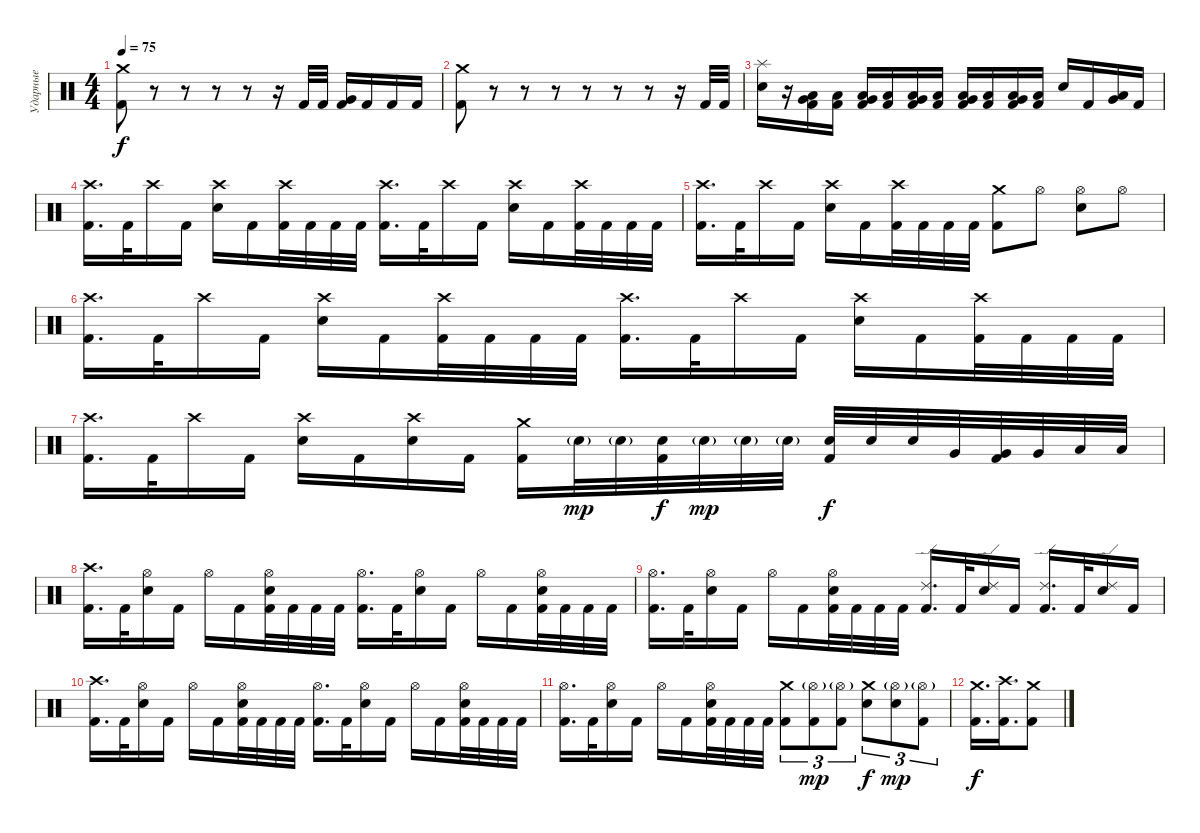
\track ("Ударные" "Ударные") {instrument percussion}
\staff {score}
\articulation defaults
\ts (4 4)
\tempo 75
\clef neutral
\ks c
("Crash medium (hit)" "Kick (hit) 2").8{dy f} r.8 r.8 r.8 r.8 r.16 "Kick (hit) 2".32 "Kick (hit) 2".32 ("Very Low Tom (hit)" "Kick (hit) 2").16 "Kick (hit) 2".16 "Kick (hit) 2".16 "Kick (hit) 2".16 |
("Crash medium (hit)" "Kick (hit) 2").8 r.8 r.8 r.8 r.8 r.8 r.8 r.16 "Kick (hit) 2".32 "Kick (hit) 2".32 |
("Splash (hit)" "Electric Snare (hit)").16 r.16 ("Very Low Tom (hit)" "Low Floor Tom (hit)" "Kick (hit) 2").16 ("Low Floor Tom (hit)" "Kick (hit) 2").16 ("Very Low Tom (hit)" "Low Floor Tom (hit)" "Kick (hit) 2").16 ("Low Floor Tom (hit)" "Kick (hit) 2").16 ("Very Low Tom (hit)" "Low Floor Tom (hit)" "Kick (hit) 2").16 ("Low Floor Tom (hit)" "Kick (hit) 2").16 ("Very Low Tom (hit)" "Low Floor Tom (hit)" "Kick (hit) 2").16 ("Low Floor Tom (hit)" "Kick (hit) 2").16 ("Very Low Tom (hit)" "Low Floor Tom (hit)" "Kick (hit) 2").16 ("Low Floor Tom (hit)" "Kick (hit) 2").16 "Electric Snare (hit)".16 "Kick (hit) 2".16 ("Very Low Tom (hit)" "Low Floor Tom (hit)").16 "Kick (hit) 2".16 |
("Crash high (hit)" "Kick (hit) 2").16{d} "Kick (hit) 2".32 "Crash high (hit)".16 "Kick (hit) 2".16 ("Crash high (hit)" "Electric Snare (hit)").16 "Kick (hit) 2".16 ("Crash high (hit)" "Kick (hit) 2").32 "Kick (hit) 2".32 "Kick (hit) 2".32 "Kick (hit) 2".32 ("Crash high (hit)" "Kick (hit) 2").16{d} "Kick (hit) 2".32 "Crash high (hit)".16 "Kick (hit) 2".16 ("Crash high (hit)" "Electric Snare (hit)").16 "Kick (hit) 2".16 ("Crash high (hit)" "Kick (hit) 2").32 "Kick (hit) 2".32 "Kick (hit) 2".32 "Kick (hit) 2".32 |
("Crash high (hit)" "Kick (hit) 2").16{d} "Kick (hit) 2".32 "Crash high (hit)".16 "Kick (hit) 2".16 ("Crash high (hit)" "Electric Snare (hit)").16 "Kick (hit) 2".16 ("Crash high (hit)" "Kick (hit) 2").32 "Kick (hit) 2".32 "Kick (hit) 2".32 "Kick (hit) 2".32 ("Crash medium (hit)" "Kick (hit) 2").8 "Hi-Hat (open)".8 ("Hi-Hat (open)" "Electric Snare (hit)").8 "Hi-Hat (open)".8 |
("Crash high (hit)" "Kick (hit) 2").16{d} "Kick (hit) 2".32 "Crash high (hit)".16 "Kick (hit) 2".16 ("Crash high (hit)" "Electric Snare (hit)").16 "Kick (hit) 2".16 ("Crash high (hit)" "Kick (hit) 2").32 "Kick (hit) 2".32 "Kick (hit) 2".32 "Kick (hit) 2".32 ("Crash high (hit)" "Kick (hit) 2").16{d} "Kick (hit) 2".32 "Crash high (hit)".16 "Kick (hit) 2".16 ("Crash high (hit)" "Electric Snare (hit)").16 "Kick (hit) 2".16 ("Crash high (hit)" "Kick (hit) 2").32 "Kick (hit) 2".32 "Kick (hit) 2".32 "Kick (hit) 2".32 |
("Crash high (hit)" "Kick (hit) 2").16{d} "Kick (hit) 2".32 "Crash high (hit)".16 "Kick (hit) 2".16 ("Crash high (hit)" "Electric Snare (hit)").16 "Kick (hit) 2".16 ("Crash high (hit)" "Electric Snare (hit)").16 "Kick (hit) 2".16 ("Crash medium (hit)" "Kick (hit) 2").16 "Electric Snare (hit)"{g}.32{dy mp} "Electric Snare (hit)"{g}.32 ("Electric Snare (hit)" "Kick (hit) 2").32{dy f} "Electric Snare (hit)"{g}.32{dy mp} "Electric Snare (hit)"{g}.32 "Electric Snare (hit)"{g}.32 ("Electric Snare (hit)" "Kick (hit) 2").32{dy f} "Electric Snare (hit)".32 "Electric Snare (hit)".32 "Very Low Tom (hit)".32 ("Very Low Tom (hit)" "Kick (hit) 2").32 "Very Low Tom (hit)".32 "Low Floor Tom (hit)".32 "Low Floor Tom (hit)".32 |
("Crash high (hit)" "Kick (hit) 2").16{d} "Kick (hit) 2".32 ("Hi-Hat (open)" "Electric Snare (hit)").16 "Kick (hit) 2".16 "Hi-Hat (open)".16 "Kick (hit) 2".16 ("Hi-Hat (open)" "Electric Snare (hit)" "Kick (hit) 2").32 "Kick (hit) 2".32 "Kick (hit) 2".32 "Kick (hit) 2".32 ("Hi-Hat (open)" "Kick (hit) 2").16{d} "Kick (hit) 2".32 ("Hi-Hat (open)" "Electric Snare (hit)").16 "Kick (hit) 2".16 "Hi-Hat (open)".16 "Kick (hit) 2".16 ("Hi-Hat (open)" "Electric Snare (hit)" "Kick (hit) 2").32 "Kick (hit) 2".32 "Kick (hit) 2".32 "Kick (hit) 2".32 |
("Hi-Hat (open)" "Kick (hit) 2").16{d} "Kick (hit) 2".32 ("Hi-Hat (open)" "Electric Snare (hit)").16 "Kick (hit) 2".16 "Hi-Hat (open)".16 "Kick (hit) 2".16 ("Hi-Hat (open)" "Electric Snare (hit)" "Kick (hit) 2").32 "Kick (hit) 2".32 "Kick (hit) 2".32 "Kick (hit) 2".32 ("Ride (edge) 2" "Kick (hit) 2").16{d} "Kick (hit) 2".32 ("Ride (edge) 2" "Electric Snare (hit)").16 "Kick (hit) 2".16 ("Ride (edge) 2" "Kick (hit) 2").16{d} "Kick (hit) 2".32 ("Ride (edge) 2" "Electric Snare (hit)").16 "Kick (hit) 2".16 |
("Crash high (hit)" "Kick (hit) 2").16{d} "Kick (hit) 2".32 ("Hi-Hat (open)" "Electric Snare (hit)").16 "Kick (hit) 2".16 "Hi-Hat (open)".16 "Kick (hit) 2".16 ("Hi-Hat (open)" "Electric Snare (hit)" "Kick (hit) 2").32 "Kick (hit) 2".32 "Kick (hit) 2".32 "Kick (hit) 2".32 ("Hi-Hat (open)" "Kick (hit) 2").16{d} "Kick (hit) 2".32 ("Hi-Hat (open)" "Electric Snare (hit)").16 "Kick (hit) 2".16 "Hi-Hat (open)".16 "Kick (hit) 2".16 ("Hi-Hat (open)" "Electric Snare (hit)" "Kick (hit) 2").32 "Kick (hit) 2".32 "Kick (hit) 2".32 "Kick (hit) 2".32 |
("Hi-Hat (open)" "Kick (hit) 2").16{d} "Kick (hit) 2".32 ("Hi-Hat (open)" "Electric Snare (hit)").16 "Kick (hit) 2".16 "Hi-Hat (open)".16 "Kick (hit) 2".16 ("Hi-Hat (open)" "Electric Snare (hit)" "Kick (hit) 2").32 "Kick (hit) 2".32 "Kick (hit) 2".32 "Kick (hit) 2".32 ("Crash medium (hit)" "Kick (hit) 2").8{tu (3 2)} ("Hi-Hat (open)"{g} "Kick (hit) 2").8{tu (3 2) dy mp} ("Hi-Hat (open)"{g} "Kick (hit) 2").8{tu (3 2)} ("Crash medium (hit)" "Electric Snare (hit)").8{tu (3 2) dy f} ("Hi-Hat (open)"{g} "Electric Snare (hit)").8{tu (3 2) dy mp} ("Hi-Hat (open)"{g} "Kick (hit) 2").8{tu (3 2)} |
("Crash medium (hit)" "Kick (hit) 2").16{d dy f} ("Crash high (hit)" "Kick (hit) 2").16{d} ("Crash medium (hit)" "Kick (hit) 2").8
